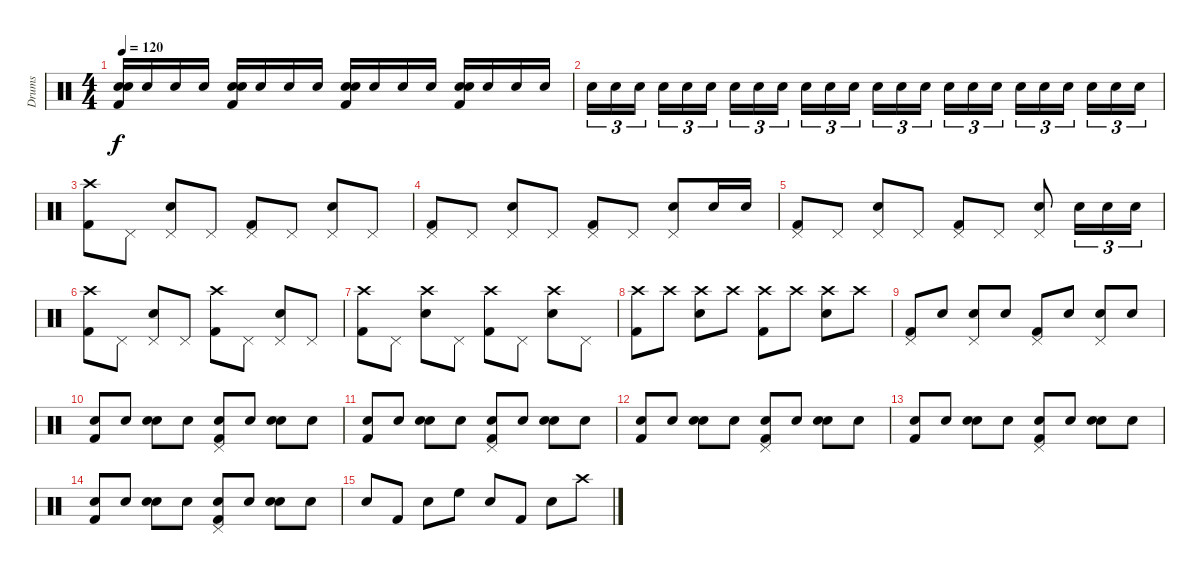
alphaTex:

\track ("Drums" "Drums") {instrument percussion}
\staff {score}
\articulation defaults
\ts (4 4)
\tempo 120
\clef neutral
\ks c
("Electric Snare (hit)" "Kick (hit) 2" "Electric Snare (hit)").16{dy f} "Electric Snare (hit)".16 "Electric Snare (hit)".16 "Electric Snare (hit)".16 ("Electric Snare (hit)" "Kick (hit) 2" "Electric Snare (hit)").16 "Electric Snare (hit)".16 "Electric Snare (hit)".16 "Electric Snare (hit)".16 ("Electric Snare (hit)" "Kick (hit) 2" "Electric Snare (hit)").16 "Electric Snare (hit)".16 "Electric Snare (hit)".16 "Electric Snare (hit)".16 ("Electric Snare (hit)" "Kick (hit) 2" "Electric Snare (hit)").16 "Electric Snare (hit)".16 "Electric Snare (hit)".16 "Electric Snare (hit)".16 |
"Electric Snare (hit)".16{tu (3 2)} "Electric Snare (hit)".16{tu (3 2)} "Electric Snare (hit)".16{tu (3 2)} "Electric Snare (hit)".16{tu (3 2)} "Electric Snare (hit)".16{tu (3 2)} "Electric Snare (hit)".16{tu (3 2)} "Electric Snare (hit)".16{tu (3 2)} "Electric Snare (hit)".16{tu (3 2)} "Electric Snare (hit)".16{tu (3 2)} "Electric Snare (hit)".16{tu (3 2)} "Electric Snare (hit)".16{tu (3 2)} "Electric Snare (hit)".16{tu (3 2)} "Electric Snare (hit)".16{tu (3 2)} "Electric Snare (hit)".16{tu (3 2)} "Electric Snare (hit)".16{tu (3 2)} "Electric Snare (hit)".16{tu (3 2)} "Electric Snare (hit)".16{tu (3 2)} "Electric Snare (hit)".16{tu (3 2)} "Electric Snare (hit)".16{tu (3 2)} "Electric Snare (hit)".16{tu (3 2)} "Electric Snare (hit)".16{tu (3 2)} "Electric Snare (hit)".16{tu (3 2)} "Electric Snare (hit)".16{tu (3 2)} "Electric Snare (hit)".16{tu (3 2)} |
("Crash high (hit)" "Kick (hit) 2").8 "Pedal Hi-Hat (hit)".8 ("Pedal Hi-Hat (hit)" "Electric Snare (hit)").8 "Pedal Hi-Hat (hit)".8 ("Pedal Hi-Hat (hit)" "Kick (hit) 2").8 "Pedal Hi-Hat (hit)".8 ("Pedal Hi-Hat (hit)" "Electric Snare (hit)").8 "Pedal Hi-Hat (hit)".8 |
("Pedal Hi-Hat (hit)" "Kick (hit) 2").8 "Pedal Hi-Hat (hit)".8 ("Pedal Hi-Hat (hit)" "Electric Snare (hit)").8 "Pedal Hi-Hat (hit)".8 ("Pedal Hi-Hat (hit)" "Kick (hit) 2").8 "Pedal Hi-Hat (hit)".8 ("Pedal Hi-Hat (hit)" "Electric Snare (hit)").8 "Electric Snare (hit)".16 "Electric Snare (hit)".16 |
("Pedal Hi-Hat (hit)" "Kick (hit) 2").8 "Pedal Hi-Hat (hit)".8 ("Pedal Hi-Hat (hit)" "Electric Snare (hit)").8 "Pedal Hi-Hat (hit)".8 ("Pedal Hi-Hat (hit)" "Kick (hit) 2").8 "Pedal Hi-Hat (hit)".8 ("Pedal Hi-Hat (hit)" "Electric Snare (hit)").8 "Electric Snare (hit)".16{tu (3 2)} "Electric Snare (hit)".16{tu (3 2)} "Electric Snare (hit)".16{tu (3 2)} |
("Crash high (hit)" "Kick (hit) 2").8 "Pedal Hi-Hat (hit)".8 ("Pedal Hi-Hat (hit)" "Electric Snare (hit)").8 "Pedal Hi-Hat (hit)".8 ("Crash high (hit)" "Kick (hit) 2").8 "Pedal Hi-Hat (hit)".8 ("Pedal Hi-Hat (hit)" "Electric Snare (hit)").8 "Pedal Hi-Hat (hit)".8 |
("Crash high (hit)" "Kick (hit) 2").8 "Pedal Hi-Hat (hit)".8 ("Crash high (hit)" "Electric Snare (hit)").8 "Pedal Hi-Hat (hit)".8 ("Crash high (hit)" "Kick (hit) 2").8 "Pedal Hi-Hat (hit)".8 ("Crash high (hit)" "Electric Snare (hit)").8 "Pedal Hi-Hat (hit)".8 |
("Crash high (hit)" "Kick (hit) 2").8 "Crash high (hit)".8 ("Crash high (hit)" "Electric Snare (hit)").8 "Crash high (hit)".8 ("Crash high (hit)" "Kick (hit) 2").8 "Crash high (hit)".8 ("Crash high (hit)" "Electric Snare (hit)").8 "Crash high (hit)".8 |
("Pedal Hi-Hat (hit)" "Kick (hit) 2").8 "Electric Snare (hit)".8 ("Pedal Hi-Hat (hit)" "Electric Snare (hit)").8 "Electric Snare (hit)".8 ("Pedal Hi-Hat (hit)" "Kick (hit) 2").8 "Electric Snare (hit)".8 ("Pedal Hi-Hat (hit)" "Electric Snare (hit)").8 "Electric Snare (hit)".8 |
("Electric Snare (hit)" "Kick (hit) 2").8 "Electric Snare (hit)".8 ("Electric Snare (hit)" "Electric Snare (hit)").8 "Electric Snare (hit)".8 ("Electric Snare (hit)" "Pedal Hi-Hat (hit)" "Kick (hit) 2").8 "Electric Snare (hit)".8 ("Electric Snare (hit)" "Electric Snare (hit)").8 "Electric Snare (hit)".8 |
("Electric Snare (hit)" "Kick (hit) 2").8 "Electric Snare (hit)".8 ("Electric Snare (hit)" "Electric Snare (hit)").8 "Electric Snare (hit)".8 ("Electric Snare (hit)" "Pedal Hi-Hat (hit)" "Kick (hit) 2").8 "Electric Snare (hit)".8 ("Electric Snare (hit)" "Electric Snare (hit)").8 "Electric Snare (hit)".8 |
("Electric Snare (hit)" "Kick (hit) 2").8 "Electric Snare (hit)".8 ("Electric Snare (hit)" "Electric Snare (hit)").8 "Electric Snare (hit)".8 ("Electric Snare (hit)" "Pedal Hi-Hat (hit)" "Kick (hit) 2").8 "Electric Snare (hit)".8 ("Electric Snare (hit)" "Electric Snare (hit)").8 "Electric Snare (hit)".8 |
("Electric Snare (hit)" "Kick (hit) 2").8 "Electric Snare (hit)".8 ("Electric Snare (hit)" "Electric Snare (hit)").8 "Electric Snare (hit)".8 ("Electric Snare (hit)" "Pedal Hi-Hat (hit)" "Kick (hit) 2").8 "Electric Snare (hit)".8 ("Electric Snare (hit)" "Electric Snare (hit)").8 "Electric Snare (hit)".8 |
("Electric Snare (hit)" "Kick (hit) 2").8 "Electric Snare (hit)".8 ("Electric Snare (hit)" "Electric Snare (hit)").8 "Electric Snare (hit)".8 ("Electric Snare (hit)" "Pedal Hi-Hat (hit)" "Kick (hit) 2").8 "Electric Snare (hit)".8 ("Electric Snare (hit)" "Electric Snare (hit)").8 "Electric Snare (hit)".8 |
"Electric Snare (hit)".8 "Kick (hit) 2".8 "Electric Snare (hit)".8 "High Floor Tom (hit)".8 "Electric Snare (hit)".8 "Kick (hit) 2".8 "Electric Snare (hit)".8 "Crash high (hit)".8
